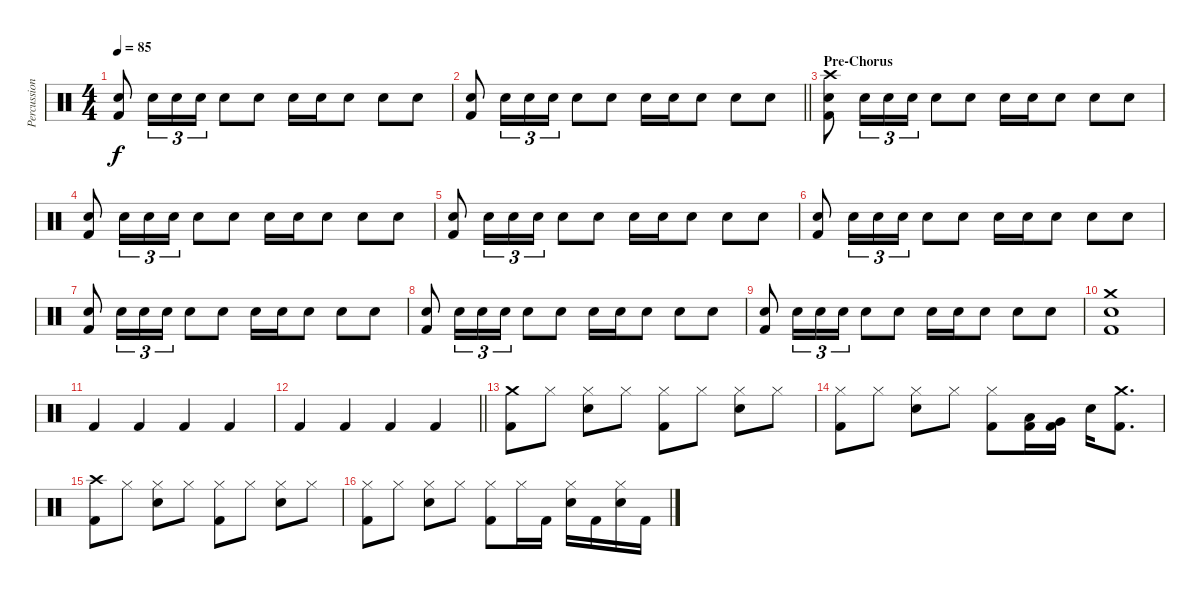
\track ("Percussion" "Percussion") {instrument percussion}
\staff {score}
\articulation defaults
\ts (4 4)
\tempo 85
\clef neutral
\ks c
("Electric Snare (hit)" "Kick (hit) 2").8{dy f} "Electric Snare (hit)".16{tu (3 2)} "Electric Snare (hit)".16{tu (3 2)} "Electric Snare (hit)".16{tu (3 2)} "Electric Snare (hit)".8 "Electric Snare (hit)".8 "Electric Snare (hit)".16 "Electric Snare (hit)".16 "Electric Snare (hit)".8 "Electric Snare (hit)".8 "Electric Snare (hit)".8 |
\barLineRight lightlight
("Electric Snare (hit)" "Kick (hit) 2").8 "Electric Snare (hit)".16{tu (3 2)} "Electric Snare (hit)".16{tu (3 2)} "Electric Snare (hit)".16{tu (3 2)} "Electric Snare (hit)".8 "Electric Snare (hit)".8 "Electric Snare (hit)".16 "Electric Snare (hit)".16 "Electric Snare (hit)".8 "Electric Snare (hit)".8 "Electric Snare (hit)".8 |
\section ("" "Pre-Chorus")
("Crash high (hit)" "Electric Snare (hit)" "Kick (hit) 2").8 "Electric Snare (hit)".16{tu (3 2)} "Electric Snare (hit)".16{tu (3 2)} "Electric Snare (hit)".16{tu (3 2)} "Electric Snare (hit)".8 "Electric Snare (hit)".8 "Electric Snare (hit)".16 "Electric Snare (hit)".16 "Electric Snare (hit)".8 "Electric Snare (hit)".8 "Electric Snare (hit)".8 |
("Electric Snare (hit)" "Kick (hit) 2").8 "Electric Snare (hit)".16{tu (3 2)} "Electric Snare (hit)".16{tu (3 2)} "Electric Snare (hit)".16{tu (3 2)} "Electric Snare (hit)".8 "Electric Snare (hit)".8 "Electric Snare (hit)".16 "Electric Snare (hit)".16 "Electric Snare (hit)".8 "Electric Snare (hit)".8 "Electric Snare (hit)".8 |
("Electric Snare (hit)" "Kick (hit) 2").8 "Electric Snare (hit)".16{tu (3 2)} "Electric Snare (hit)".16{tu (3 2)} "Electric Snare (hit)".16{tu (3 2)} "Electric Snare (hit)".8 "Electric Snare (hit)".8 "Electric Snare (hit)".16 "Electric Snare (hit)".16 "Electric Snare (hit)".8 "Electric Snare (hit)".8 "Electric Snare (hit)".8 |
("Electric Snare (hit)" "Kick (hit) 2").8 "Electric Snare (hit)".16{tu (3 2)} "Electric Snare (hit)".16{tu (3 2)} "Electric Snare (hit)".16{tu (3 2)} "Electric Snare (hit)".8 "Electric Snare (hit)".8 "Electric Snare (hit)".16 "Electric Snare (hit)".16 "Electric Snare (hit)".8 "Electric Snare (hit)".8 "Electric Snare (hit)".8 |
("Electric Snare (hit)" "Kick (hit) 2").8 "Electric Snare (hit)".16{tu (3 2)} "Electric Snare (hit)".16{tu (3 2)} "Electric Snare (hit)".16{tu (3 2)} "Electric Snare (hit)".8 "Electric Snare (hit)".8 "Electric Snare (hit)".16 "Electric Snare (hit)".16 "Electric Snare (hit)".8 "Electric Snare (hit)".8 "Electric Snare (hit)".8 |
("Electric Snare (hit)" "Kick (hit) 2").8 "Electric Snare (hit)".16{tu (3 2)} "Electric Snare (hit)".16{tu (3 2)} "Electric Snare (hit)".16{tu (3 2)} "Electric Snare (hit)".8 "Electric Snare (hit)".8 "Electric Snare (hit)".16 "Electric Snare (hit)".16 "Electric Snare (hit)".8 "Electric Snare (hit)".8 "Electric Snare (hit)".8 |
("Electric Snare (hit)" "Kick (hit) 2").8 "Electric Snare (hit)".16{tu (3 2)} "Electric Snare (hit)".16{tu (3 2)} "Electric Snare (hit)".16{tu (3 2)} "Electric Snare (hit)".8 "Electric Snare (hit)".8 "Electric Snare (hit)".16 "Electric Snare (hit)".16 "Electric Snare (hit)".8 "Electric Snare (hit)".8 "Electric Snare (hit)".8 |
("Crash medium (hit)" "Electric Snare (hit)" "Kick (hit) 2").1 |
"Kick (hit) 2".4 "Kick (hit) 2".4 "Kick (hit) 2".4 "Kick (hit) 2".4 |
\barLineRight lightlight "Kick (hit) 2".4 "Kick (hit) 2".4 "Kick (hit) 2".4 "Kick (hit) 2".4
|
\section ("" "")
("Crash medium (hit)" "Kick (hit) 2").8 "Hi-Hat (closed)".8 ("Hi-Hat (closed)" "Electric Snare (hit)").8 "Hi-Hat (closed)".8 ("Hi-Hat (closed)" "Kick (hit) 2").8 "Hi-Hat (closed)".8 ("Hi-Hat (closed)" "Electric Snare (hit)").8 "Hi-Hat (closed)".8 |
("Hi-Hat (closed)" "Kick (hit) 2").8 "Hi-Hat (closed)".8 ("Hi-Hat (closed)" "Electric Snare (hit)").8 "Hi-Hat (closed)".8 ("Hi-Hat (closed)" "Kick (hit) 2").8 ("Low Tom (hit)" "Kick (hit) 2").16 ("Very Low Tom (hit)" "Kick (hit) 2").16 "Electric Snare (hit)".16 ("Crash medium (hit)" "Kick (hit) 2").8{d} |
("Crash high (hit)" "Kick (hit) 2").8 "Hi-Hat (closed)".8 ("Hi-Hat (closed)" "Electric Snare (hit)").8 "Hi-Hat (closed)".8 ("Hi-Hat (closed)" "Kick (hit) 2").8 "Hi-Hat (closed)".8 ("Hi-Hat (closed)" "Electric Snare (hit)").8 "Hi-Hat (closed)".8 |
("Hi-Hat (closed)" "Kick (hit) 2").8 "Hi-Hat (closed)".8 ("Hi-Hat (closed)" "Electric Snare (hit)").8 "Hi-Hat (closed)".8 ("Hi-Hat (closed)" "Kick (hit) 2").8 "Hi-Hat (closed)".16 "Kick (hit) 2".16 ("Hi-Hat (closed)" "Electric Snare (hit)").16 "Kick (hit) 2".16 ("Hi-Hat (closed)" "Electric Snare (hit)").16 "Kick (hit) 2".16
